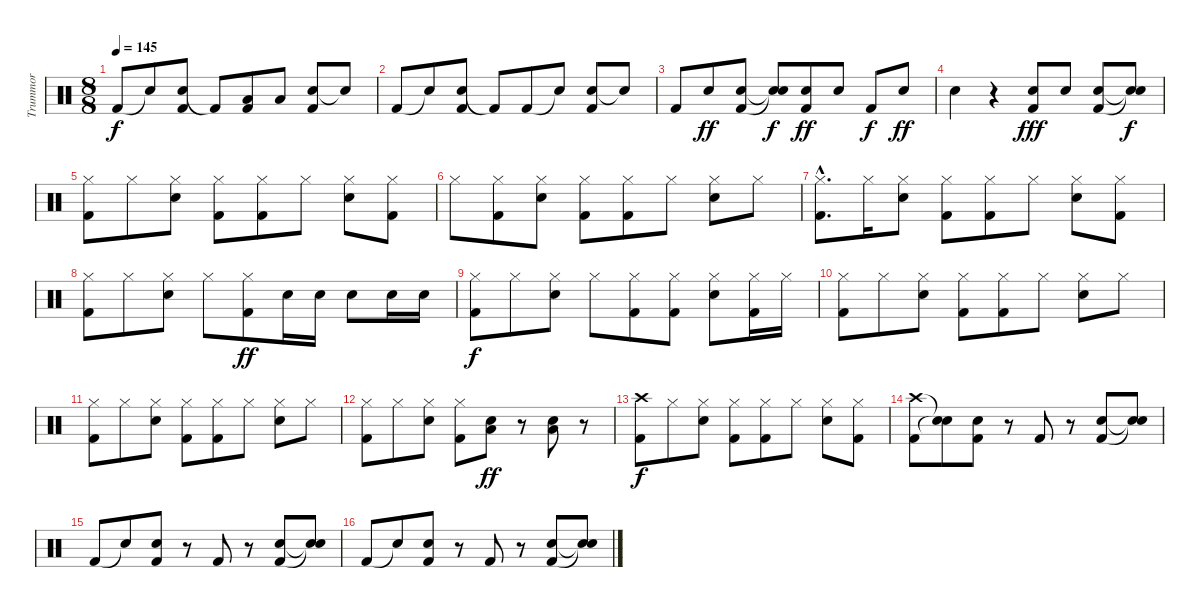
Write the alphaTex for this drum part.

\track ("Trummor" "Trummor") {instrument percussion}
\staff {score}
\articulation defaults
\ts (8 8)
\tempo 145
\clef neutral
\ks c "Kick (hit) 2".8{dy f} "Snare (hit)"{t}.8
("Snare (hit) 2" "Kick (hit) 2").8 "Kick (hit) 2"{t}.8 ("Low Floor Tom (hit)" "Kick (hit) 2").8 "Low Floor Tom (hit)".8 ("Snare (hit) 2" "Kick (hit) 2").8 "Snare (hit)"{t}.8 |
"Kick (hit) 2".8 "Snare (hit)"{t}.8 ("Snare (hit) 2" "Kick (hit) 2").8 "Kick (hit) 2"{t}.8 "Kick (hit) 2".8 "Snare (hit)"{t}.8 ("Snare (hit) 2" "Kick (hit) 2").8 "Snare (hit)"{t}.8 |
"Kick (hit) 2".8 "Snare (hit) 2".8{dy ff} ("Snare (hit) 2" "Kick (hit) 2").8 ("Snare (hit)"{t} "Snare (hit)"{t}).8{dy f} ("Snare (hit) 2" "Kick (hit) 2").8{dy ff} "Snare (hit) 2".8 "Kick (hit) 2".8{dy f} "Snare (hit) 2".8{dy ff} |
"Snare (hit) 2".4 r.4 ("Snare (hit) 2" "Kick (hit) 2").8{dy fff} "Snare (hit) 2".8 ("Snare (hit) 2" "Kick (hit) 2").8 ("Snare (hit)"{t} "Snare (hit)"{t}).8{dy f} |
("Kick (hit) 2" "Hi-Hat (closed)").8 "Hi-Hat (closed)".8 ("Snare (hit) 2" "Hi-Hat (closed)").8 ("Kick (hit) 2" "Hi-Hat (closed)").8 ("Kick (hit) 2" "Hi-Hat (closed)").8 "Hi-Hat (closed)".8 ("Snare (hit) 2" "Hi-Hat (closed)").8 ("Kick (hit) 2" "Hi-Hat (closed)").8 |
"Hi-Hat (closed)".8 ("Kick (hit) 2" "Hi-Hat (closed)").8 ("Snare (hit) 2" "Hi-Hat (closed)").8 ("Kick (hit) 2" "Hi-Hat (closed)").8 ("Kick (hit) 2" "Hi-Hat (closed)").8 "Hi-Hat (closed)".8 ("Snare (hit) 2" "Hi-Hat (closed)").8 "Hi-Hat (closed)".8 |
("Kick (hit) 2"{hac} "Hi-Hat (closed)"{hac}).8{d} "Hi-Hat (closed)".16 ("Snare (hit) 2" "Hi-Hat (closed)").8 ("Kick (hit) 2" "Hi-Hat (closed)").8 ("Kick (hit) 2" "Hi-Hat (closed)").8 "Hi-Hat (closed)".8 ("Snare (hit) 2" "Hi-Hat (closed)").8 ("Kick (hit) 2" "Hi-Hat (closed)").8 |
("Kick (hit) 2" "Hi-Hat (closed)").8 "Hi-Hat (closed)".8 ("Snare (hit) 2" "Hi-Hat (closed)").8 "Hi-Hat (closed)".8 ("Kick (hit) 2" "Hi-Hat (closed)").8{dy ff} "Snare (hit) 2".16 "Snare (hit) 2".16 "Snare (hit) 2".8 "Snare (hit) 2".16 "Snare (hit) 2".16 |
("Kick (hit) 2" "Hi-Hat (closed)").8{dy f} "Hi-Hat (closed)".8 ("Snare (hit) 2" "Hi-Hat (closed)").8 "Hi-Hat (closed)".8 ("Kick (hit) 2" "Hi-Hat (closed)").8 ("Kick (hit) 2" "Hi-Hat (closed)").8 ("Snare (hit) 2" "Hi-Hat (closed)").8 ("Kick (hit) 2" "Hi-Hat (closed)").16 "Hi-Hat (closed)".16 |
("Kick (hit) 2" "Hi-Hat (closed)").8 "Hi-Hat (closed)".8 ("Snare (hit) 2" "Hi-Hat (closed)").8 ("Kick (hit) 2" "Hi-Hat (closed)").8 ("Kick (hit) 2" "Hi-Hat (closed)").8 "Hi-Hat (closed)".8 ("Snare (hit) 2" "Hi-Hat (closed)").8 "Hi-Hat (closed)".8 |
("Kick (hit) 2" "Hi-Hat (closed)").8 "Hi-Hat (closed)".8 ("Snare (hit) 2" "Hi-Hat (closed)").8 ("Kick (hit) 2" "Hi-Hat (closed)").8 ("Kick (hit) 2" "Hi-Hat (closed)").8 "Hi-Hat (closed)".8 ("Snare (hit) 2" "Hi-Hat (closed)").8 "Hi-Hat (closed)".8 |
("Kick (hit) 2" "Hi-Hat (closed)").8 "Hi-Hat (closed)".8 ("Snare (hit) 2" "Hi-Hat (closed)").8 ("Kick (hit) 2" "Hi-Hat (closed)").8 ("Snare (hit) 2" "Low Floor Tom (hit)").8{dy ff} r.8 ("Snare (hit) 2" "Low Floor Tom (hit)").8 r.8 |
("Kick (hit) 2" "Crash high (hit)").8{dy f} "Hi-Hat (closed)".8 ("Snare (hit) 2" "Hi-Hat (closed)").8 ("Kick (hit) 2" "Hi-Hat (closed)").8 ("Kick (hit) 2" "Hi-Hat (closed)").8 "Hi-Hat (closed)".8 ("Snare (hit) 2" "Hi-Hat (closed)").8 ("Kick (hit) 2" "Hi-Hat (closed)").8 |
("Crash high (hit)" "Kick (hit) 2").8 ("Snare (hit)"{t} "Snare (hit)"{t}).8 ("Snare (hit) 2" "Kick (hit) 2").8 r.8 "Kick (hit) 2".8 r.8 ("Snare (hit) 2" "Kick (hit) 2").8 ("Snare (hit)"{t} "Snare (hit)"{t}).8 |
"Kick (hit) 2".8 "Snare (hit)"{t}.8 ("Snare (hit) 2" "Kick (hit) 2").8 r.8 "Kick (hit) 2".8 r.8 ("Snare (hit) 2" "Kick (hit) 2").8 ("Snare (hit)"{t} "Snare (hit)"{t}).8 |
"Kick (hit) 2".8 "Snare (hit)"{t}.8 ("Snare (hit) 2" "Kick (hit) 2").8 r.8 "Kick (hit) 2".8 r.8 ("Snare (hit) 2" "Kick (hit) 2").8 ("Snare (hit)"{t} "Snare (hit)"{t}).8
